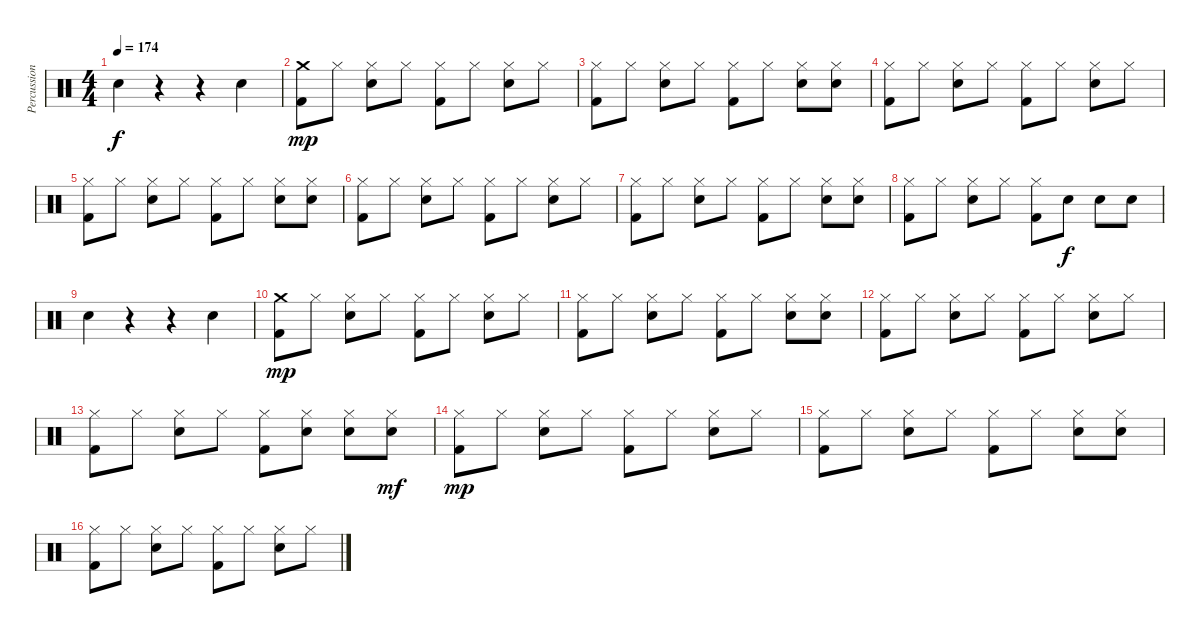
\track ("Percussion" "Percussion") {instrument percussion}
\staff {score}
\articulation defaults
\ts (4 4)
\tempo 174
\clef neutral
\ks c "Electric Snare (hit)".4{dy f}
r.4 r.4 "Electric Snare (hit)".4 |
("Crash medium (hit)" "Kick (hit) 2").8{dy mp} "Hi-Hat (closed)".8 ("Hi-Hat (closed)" "Electric Snare (hit)").8 "Hi-Hat (closed)".8 ("Hi-Hat (closed)" "Kick (hit) 2").8 "Hi-Hat (closed)".8 ("Hi-Hat (closed)" "Electric Snare (hit)").8 "Hi-Hat (closed)".8 |
("Hi-Hat (closed)" "Kick (hit) 2").8 "Hi-Hat (closed)".8 ("Hi-Hat (closed)" "Electric Snare (hit)").8 "Hi-Hat (closed)".8 ("Hi-Hat (closed)" "Kick (hit) 2").8 "Hi-Hat (closed)".8 ("Hi-Hat (closed)" "Electric Snare (hit)").8 ("Hi-Hat (closed)" "Electric Snare (hit)").8 |
("Hi-Hat (closed)" "Kick (hit) 2").8 "Hi-Hat (closed)".8 ("Hi-Hat (closed)" "Electric Snare (hit)").8 "Hi-Hat (closed)".8 ("Hi-Hat (closed)" "Kick (hit) 2").8 "Hi-Hat (closed)".8 ("Hi-Hat (closed)" "Electric Snare (hit)").8 "Hi-Hat (closed)".8 |
("Hi-Hat (closed)" "Kick (hit) 2").8 "Hi-Hat (closed)".8 ("Hi-Hat (closed)" "Electric Snare (hit)").8 "Hi-Hat (closed)".8 ("Hi-Hat (closed)" "Kick (hit) 2").8 "Hi-Hat (closed)".8 ("Hi-Hat (closed)" "Electric Snare (hit)").8 ("Hi-Hat (closed)" "Electric Snare (hit)").8 |
("Hi-Hat (closed)" "Kick (hit) 2").8 "Hi-Hat (closed)".8 ("Hi-Hat (closed)" "Electric Snare (hit)").8 "Hi-Hat (closed)".8 ("Hi-Hat (closed)" "Kick (hit) 2").8 "Hi-Hat (closed)".8 ("Hi-Hat (closed)" "Electric Snare (hit)").8 "Hi-Hat (closed)".8 |
("Hi-Hat (closed)" "Kick (hit) 2").8 "Hi-Hat (closed)".8 ("Hi-Hat (closed)" "Electric Snare (hit)").8 "Hi-Hat (closed)".8 ("Hi-Hat (closed)" "Kick (hit) 2").8 "Hi-Hat (closed)".8 ("Hi-Hat (closed)" "Electric Snare (hit)").8 ("Hi-Hat (closed)" "Electric Snare (hit)").8 |
("Hi-Hat (closed)" "Kick (hit) 2").8 "Hi-Hat (closed)".8 ("Hi-Hat (closed)" "Electric Snare (hit)").8 "Hi-Hat (closed)".8 ("Hi-Hat (closed)" "Kick (hit) 2").8 "Electric Snare (hit)".8{dy f} "Electric Snare (hit)".8 "Electric Snare (hit)".8 |
"Electric Snare (hit)".4 r.4 r.4 "Electric Snare (hit)".4 |
("Crash medium (hit)" "Kick (hit) 2").8{dy mp} "Hi-Hat (closed)".8 ("Hi-Hat (closed)" "Electric Snare (hit)").8 "Hi-Hat (closed)".8 ("Hi-Hat (closed)" "Kick (hit) 2").8 "Hi-Hat (closed)".8 ("Hi-Hat (closed)" "Electric Snare (hit)").8 "Hi-Hat (closed)".8 |
("Hi-Hat (closed)" "Kick (hit) 2").8 "Hi-Hat (closed)".8 ("Hi-Hat (closed)" "Electric Snare (hit)").8 "Hi-Hat (closed)".8 ("Hi-Hat (closed)" "Kick (hit) 2").8 "Hi-Hat (closed)".8 ("Hi-Hat (closed)" "Electric Snare (hit)").8 ("Hi-Hat (closed)" "Electric Snare (hit)").8 |
("Hi-Hat (closed)" "Kick (hit) 2").8 "Hi-Hat (closed)".8 ("Hi-Hat (closed)" "Electric Snare (hit)").8 "Hi-Hat (closed)".8 ("Hi-Hat (closed)" "Kick (hit) 2").8 "Hi-Hat (closed)".8 ("Hi-Hat (closed)" "Electric Snare (hit)").8 "Hi-Hat (closed)".8 |
("Hi-Hat (closed)" "Kick (hit) 2").8 "Hi-Hat (closed)".8 ("Hi-Hat (closed)" "Electric Snare (hit)").8 "Hi-Hat (closed)".8 ("Hi-Hat (closed)" "Kick (hit) 2").8 ("Hi-Hat (closed)" "Electric Snare (hit)").8 ("Hi-Hat (closed)" "Electric Snare (hit)").8 ("Hi-Hat (closed)" "Electric Snare (hit)").8{dy mf} |
("Hi-Hat (closed)" "Kick (hit) 2").8{dy mp} "Hi-Hat (closed)".8 ("Hi-Hat (closed)" "Electric Snare (hit)").8 "Hi-Hat (closed)".8 ("Hi-Hat (closed)" "Kick (hit) 2").8 "Hi-Hat (closed)".8 ("Hi-Hat (closed)" "Electric Snare (hit)").8 "Hi-Hat (closed)".8 |
("Hi-Hat (closed)" "Kick (hit) 2").8 "Hi-Hat (closed)".8 ("Hi-Hat (closed)" "Electric Snare (hit)").8 "Hi-Hat (closed)".8 ("Hi-Hat (closed)" "Kick (hit) 2").8 "Hi-Hat (closed)".8 ("Hi-Hat (closed)" "Electric Snare (hit)").8 ("Hi-Hat (closed)" "Electric Snare (hit)").8 |
("Hi-Hat (closed)" "Kick (hit) 2").8 "Hi-Hat (closed)".8 ("Hi-Hat (closed)" "Electric Snare (hit)").8 "Hi-Hat (closed)".8 ("Hi-Hat (closed)" "Kick (hit) 2").8 "Hi-Hat (closed)".8 ("Hi-Hat (closed)" "Electric Snare (hit)").8 "Hi-Hat (closed)".8
